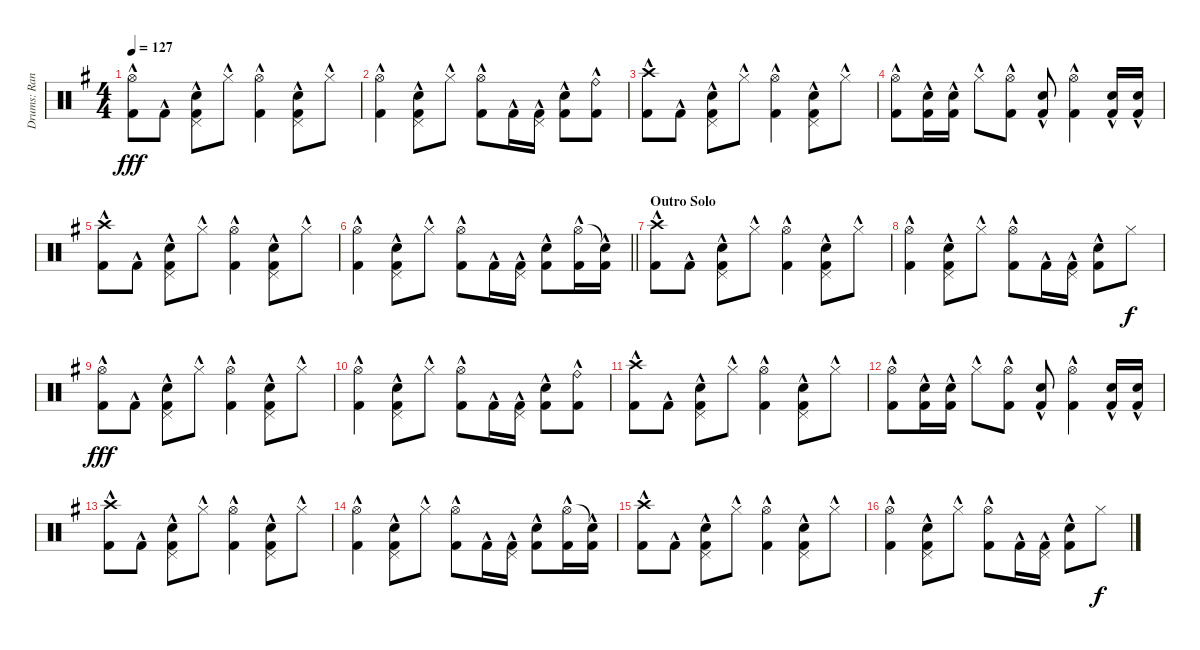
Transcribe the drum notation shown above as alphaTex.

\track ("Drums: Randy" "Drums: Ran") {instrument percussion}
\staff {score}
\articulation defaults
\ts (4 4)
\tempo 127
\clef neutral
\ks g
("Hi-Hat (open)" "Kick (hit) 2"{hac}).8{dy fff} "Kick (hit) 2"{hac}.8 ("Pedal Hi-Hat (hit)"{hac} "Snare (hit) 2"{hac} "Kick (hit) 2"{hac}).8 "Hi-Hat (closed)"{hac}.8 ("Hi-Hat (open)"{hac} "Kick (hit) 2"{hac}).4 ("Pedal Hi-Hat (hit)"{hac} "Snare (hit) 2"{hac} "Kick (hit) 2"{hac}).8 "Hi-Hat (closed)"{hac}.8 |
("Hi-Hat (open)"{hac} "Kick (hit) 2"{hac}).4 ("Pedal Hi-Hat (hit)"{hac} "Snare (hit) 2"{hac} "Kick (hit) 2"{hac}).8 "Hi-Hat (closed)"{hac}.8 ("Hi-Hat (open)"{hac} "Kick (hit) 2"{hac}).8 "Kick (hit) 2"{hac}.16 ("Pedal Hi-Hat (hit)" "Kick (hit) 2"{hac}).16 ("Snare (hit) 2"{hac} "Kick (hit) 2"{hac}).8 ("Ride (bell)"{hac} "Kick (hit) 2"{hac}).8 |
("Crash high (hit)"{hac} "Kick (hit) 2"{hac}).8 "Kick (hit) 2"{hac}.8 ("Pedal Hi-Hat (hit)"{hac} "Snare (hit) 2"{hac} "Kick (hit) 2"{hac}).8 "Hi-Hat (closed)"{hac}.8 ("Hi-Hat (open)"{hac} "Kick (hit) 2"{hac}).4 ("Pedal Hi-Hat (hit)"{hac} "Snare (hit) 2"{hac} "Kick (hit) 2"{hac}).8 "Hi-Hat (closed)"{hac}.8 |
("Hi-Hat (open)"{hac} "Kick (hit) 2"{hac}).8 ("Snare (hit) 2"{hac} "Kick (hit) 2"{hac}).16 ("Snare (hit) 2"{hac} "Kick (hit) 2"{hac}).16 "Hi-Hat (closed)"{hac}.8 ("Hi-Hat (open)"{hac} "Kick (hit) 2"{hac}).8 ("Snare (hit) 2"{hac} "Kick (hit) 2"{hac}).8 ("Hi-Hat (open)"{hac} "Kick (hit) 2"{hac}).4 ("Snare (hit) 2"{hac} "Kick (hit) 2"{hac}).16 ("Snare (hit) 2"{hac} "Kick (hit) 2"{hac}).16 |
("Crash high (hit)"{hac} "Kick (hit) 2"{hac}).8 "Kick (hit) 2"{hac}.8 ("Pedal Hi-Hat (hit)"{hac} "Snare (hit) 2"{hac} "Kick (hit) 2"{hac}).8 "Hi-Hat (closed)"{hac}.8 ("Hi-Hat (open)"{hac} "Kick (hit) 2"{hac}).4 ("Pedal Hi-Hat (hit)"{hac} "Snare (hit) 2"{hac} "Kick (hit) 2"{hac}).8 "Hi-Hat (closed)"{hac}.8 |
\barLineRight lightlight
("Hi-Hat (open)"{hac} "Kick (hit) 2"{hac}).4 ("Pedal Hi-Hat (hit)"{hac} "Snare (hit) 2"{hac} "Kick (hit) 2"{hac}).8 "Hi-Hat (closed)"{hac}.8 ("Hi-Hat (open)"{hac} "Kick (hit) 2"{hac}).8 "Kick (hit) 2"{hac}.16 ("Pedal Hi-Hat (hit)" "Kick (hit) 2"{hac}).16 ("Snare (hit) 2"{hac} "Kick (hit) 2"{hac}).8 ("Hi-Hat (open)" "Kick (hit) 2"{hac}).16 ("Snare (hit)"{t} "Kick (hit) 2"{hac}).16 |
\section ("" "Outro Solo")
("Crash high (hit)"{hac} "Kick (hit) 2"{hac}).8 "Kick (hit) 2"{hac}.8 ("Pedal Hi-Hat (hit)"{hac} "Snare (hit) 2"{hac} "Kick (hit) 2"{hac}).8 "Hi-Hat (closed)"{hac}.8 ("Hi-Hat (open)"{hac} "Kick (hit) 2"{hac}).4 ("Pedal Hi-Hat (hit)"{hac} "Snare (hit) 2"{hac} "Kick (hit) 2"{hac}).8 "Hi-Hat (closed)"{hac}.8 |
("Hi-Hat (open)"{hac} "Kick (hit) 2"{hac}).4 ("Pedal Hi-Hat (hit)"{hac} "Snare (hit) 2"{hac} "Kick (hit) 2"{hac}).8 "Hi-Hat (closed)"{hac}.8 ("Hi-Hat (open)"{hac} "Kick (hit) 2"{hac}).8 "Kick (hit) 2"{hac}.16 ("Pedal Hi-Hat (hit)" "Kick (hit) 2"{hac}).16 ("Snare (hit) 2"{hac} "Kick (hit) 2"{hac}).8 "Hi-Hat (closed)".8{dy f} |
("Hi-Hat (open)" "Kick (hit) 2"{hac}).8{dy fff} "Kick (hit) 2"{hac}.8 ("Pedal Hi-Hat (hit)"{hac} "Snare (hit) 2"{hac} "Kick (hit) 2"{hac}).8 "Hi-Hat (closed)"{hac}.8 ("Hi-Hat (open)"{hac} "Kick (hit) 2"{hac}).4 ("Pedal Hi-Hat (hit)"{hac} "Snare (hit) 2"{hac} "Kick (hit) 2"{hac}).8 "Hi-Hat (closed)"{hac}.8 |
("Hi-Hat (open)"{hac} "Kick (hit) 2"{hac}).4 ("Pedal Hi-Hat (hit)"{hac} "Snare (hit) 2"{hac} "Kick (hit) 2"{hac}).8 "Hi-Hat (closed)"{hac}.8 ("Hi-Hat (open)"{hac} "Kick (hit) 2"{hac}).8 "Kick (hit) 2"{hac}.16 ("Pedal Hi-Hat (hit)" "Kick (hit) 2"{hac}).16 ("Snare (hit) 2"{hac} "Kick (hit) 2"{hac}).8 ("Ride (bell)"{hac} "Kick (hit) 2"{hac}).8 |
("Crash high (hit)"{hac} "Kick (hit) 2"{hac}).8 "Kick (hit) 2"{hac}.8 ("Pedal Hi-Hat (hit)"{hac} "Snare (hit) 2"{hac} "Kick (hit) 2"{hac}).8 "Hi-Hat (closed)"{hac}.8 ("Hi-Hat (open)"{hac} "Kick (hit) 2"{hac}).4 ("Pedal Hi-Hat (hit)"{hac} "Snare (hit) 2"{hac} "Kick (hit) 2"{hac}).8 "Hi-Hat (closed)"{hac}.8 |
("Hi-Hat (open)"{hac} "Kick (hit) 2"{hac}).8 ("Snare (hit) 2"{hac} "Kick (hit) 2"{hac}).16 ("Snare (hit) 2"{hac} "Kick (hit) 2"{hac}).16 "Hi-Hat (closed)"{hac}.8 ("Hi-Hat (open)"{hac} "Kick (hit) 2"{hac}).8 ("Snare (hit) 2"{hac} "Kick (hit) 2"{hac}).8 ("Hi-Hat (open)"{hac} "Kick (hit) 2"{hac}).4 ("Snare (hit) 2"{hac} "Kick (hit) 2"{hac}).16 ("Snare (hit) 2"{hac} "Kick (hit) 2"{hac}).16 |
("Crash high (hit)"{hac} "Kick (hit) 2"{hac}).8 "Kick (hit) 2"{hac}.8 ("Pedal Hi-Hat (hit)"{hac} "Snare (hit) 2"{hac} "Kick (hit) 2"{hac}).8 "Hi-Hat (closed)"{hac}.8 ("Hi-Hat (open)"{hac} "Kick (hit) 2"{hac}).4 ("Pedal Hi-Hat (hit)"{hac} "Snare (hit) 2"{hac} "Kick (hit) 2"{hac}).8 "Hi-Hat (closed)"{hac}.8 |
("Hi-Hat (open)"{hac} "Kick (hit) 2"{hac}).4 ("Pedal Hi-Hat (hit)"{hac} "Snare (hit) 2"{hac} "Kick (hit) 2"{hac}).8 "Hi-Hat (closed)"{hac}.8 ("Hi-Hat (open)"{hac} "Kick (hit) 2"{hac}).8 "Kick (hit) 2"{hac}.16 ("Pedal Hi-Hat (hit)" "Kick (hit) 2"{hac}).16 ("Snare (hit) 2"{hac} "Kick (hit) 2"{hac}).8 ("Hi-Hat (open)" "Kick (hit) 2"{hac}).16 ("Snare (hit)"{t} "Kick (hit) 2"{hac}).16 |
("Crash high (hit)"{hac} "Kick (hit) 2"{hac}).8 "Kick (hit) 2"{hac}.8 ("Pedal Hi-Hat (hit)"{hac} "Snare (hit) 2"{hac} "Kick (hit) 2"{hac}).8 "Hi-Hat (closed)"{hac}.8 ("Hi-Hat (open)"{hac} "Kick (hit) 2"{hac}).4 ("Pedal Hi-Hat (hit)"{hac} "Snare (hit) 2"{hac} "Kick (hit) 2"{hac}).8 "Hi-Hat (closed)"{hac}.8 |
("Hi-Hat (open)"{hac} "Kick (hit) 2"{hac}).4 ("Pedal Hi-Hat (hit)"{hac} "Snare (hit) 2"{hac} "Kick (hit) 2"{hac}).8 "Hi-Hat (closed)"{hac}.8 ("Hi-Hat (open)"{hac} "Kick (hit) 2"{hac}).8 "Kick (hit) 2"{hac}.16 ("Pedal Hi-Hat (hit)" "Kick (hit) 2"{hac}).16 ("Snare (hit) 2"{hac} "Kick (hit) 2"{hac}).8 "Hi-Hat (closed)".8{dy f}
